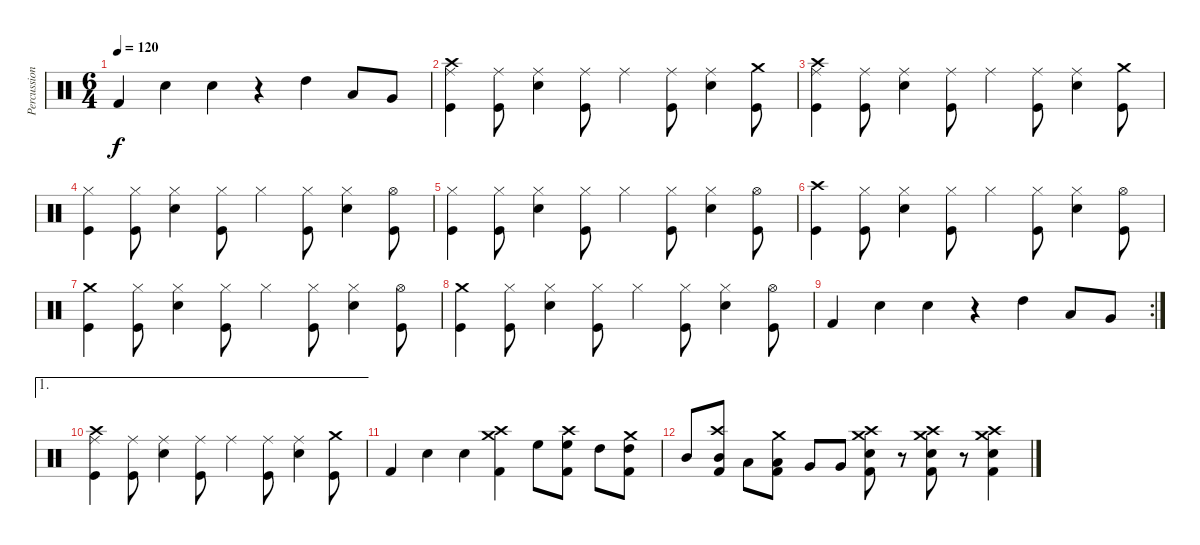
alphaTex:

\track ("Percussions" "Percussion") {instrument percussion}
\staff {score}
\articulation defaults
\ts (6 4)
\tempo 120
\clef neutral
\ks c "Kick (hit) 2".4{dy f} "Snare (hit) 2".4 "Snare (hit) 2".4
r.4 "High Tom (hit)".4 "Low Tom (hit)".8 "Very Low Tom (hit)".8 |
("Ride (middle)" "Crash high (hit)" "Kick (hit)").4 ("Ride (middle)" "Kick (hit)").8 ("Ride (middle)" "Snare (hit) 2").4 ("Ride (middle)" "Kick (hit)").8 "Ride (middle)".4 ("Ride (middle)" "Kick (hit)").8 ("Ride (middle)" "Snare (hit) 2").4 ("Crash medium (hit)" "Kick (hit)").8 |
("Ride (middle)" "Crash high (hit)" "Kick (hit)").4 ("Ride (middle)" "Kick (hit)").8 ("Ride (middle)" "Snare (hit) 2").4 ("Ride (middle)" "Kick (hit)").8 "Ride (middle)".4 ("Ride (middle)" "Kick (hit)").8 ("Ride (middle)" "Snare (hit) 2").4 ("Crash medium (hit)" "Kick (hit)").8 |
("Hi-Hat (closed)" "Kick (hit)").4 ("Hi-Hat (closed)" "Kick (hit)").8 ("Hi-Hat (closed)" "Snare (hit) 2").4 ("Hi-Hat (closed)" "Kick (hit)").8 "Hi-Hat (closed)".4 ("Hi-Hat (closed)" "Kick (hit)").8 ("Hi-Hat (closed)" "Snare (hit) 2").4 ("Hi-Hat (open)" "Kick (hit)").8 |
("Hi-Hat (closed)" "Kick (hit)").4 ("Hi-Hat (closed)" "Kick (hit)").8 ("Hi-Hat (closed)" "Snare (hit) 2").4 ("Hi-Hat (closed)" "Kick (hit)").8 "Hi-Hat (closed)".4 ("Hi-Hat (closed)" "Kick (hit)").8 ("Hi-Hat (closed)" "Snare (hit) 2").4 ("Hi-Hat (open)" "Kick (hit)").8 |
("Crash high (hit)" "Kick (hit)").4 ("Hi-Hat (closed)" "Kick (hit)").8 ("Hi-Hat (closed)" "Snare (hit) 2").4 ("Hi-Hat (closed)" "Kick (hit)").8 "Hi-Hat (closed)".4 ("Hi-Hat (closed)" "Kick (hit)").8 ("Hi-Hat (closed)" "Snare (hit) 2").4 ("Hi-Hat (open)" "Kick (hit)").8 |
("Crash medium (hit)" "Kick (hit)").4 ("Hi-Hat (closed)" "Kick (hit)").8 ("Hi-Hat (closed)" "Snare (hit) 2").4 ("Hi-Hat (closed)" "Kick (hit)").8 "Hi-Hat (closed)".4 ("Hi-Hat (closed)" "Kick (hit)").8 ("Hi-Hat (closed)" "Snare (hit) 2").4 ("Hi-Hat (open)" "Kick (hit)").8 |
("Crash medium (hit)" "Kick (hit)").4 ("Hi-Hat (closed)" "Kick (hit)").8 ("Hi-Hat (closed)" "Snare (hit) 2").4 ("Hi-Hat (closed)" "Kick (hit)").8 "Hi-Hat (closed)".4 ("Hi-Hat (closed)" "Kick (hit)").8 ("Hi-Hat (closed)" "Snare (hit) 2").4 ("Hi-Hat (open)" "Kick (hit)").8 |
\rc 2 "Kick (hit) 2".4 "Snare (hit) 2".4 "Snare (hit) 2".4
r.4 "High Tom (hit)".4 "Low Tom (hit)".8 "Very Low Tom (hit)".8 |
\ae 1
("Ride (middle)" "Crash high (hit)" "Kick (hit)").4 ("Ride (middle)" "Kick (hit)").8 ("Ride (middle)" "Snare (hit) 2").4 ("Ride (middle)" "Kick (hit)").8 "Ride (middle)".4 ("Ride (middle)" "Kick (hit)").8 ("Ride (middle)" "Snare (hit) 2").4 ("Crash medium (hit)" "Kick (hit)").8 |
"Kick (hit) 2".4 "Snare (hit) 2".4 "Snare (hit) 2".4 ("Crash medium (hit)" "Crash high (hit)" "Kick (hit) 2").4 "High Floor Tom (hit)".8 ("Crash high (hit)" "High Floor Tom (hit)" "Kick (hit) 2").8 "High Tom (hit)".8 ("Crash medium (hit)" "High Tom (hit)" "Kick (hit) 2").8 |
"Mid Tom (hit)".8 ("Crash high (hit)" "Mid Tom (hit)" "Kick (hit) 2").8 "Low Tom (hit)".8 ("Crash medium (hit)" "Low Tom (hit)" "Kick (hit) 2").8 "Very Low Tom (hit)".8 "Very Low Tom (hit)".8 ("Crash medium (hit)" "Crash high (hit)" "Snare (hit) 2" "Kick (hit) 2").8 r.8 ("Crash medium (hit)" "Crash high (hit)" "Snare (hit) 2" "Kick (hit) 2").8 r.8 ("Crash medium (hit)" "Crash high (hit)" "Snare (hit) 2" "Kick (hit) 2").4
